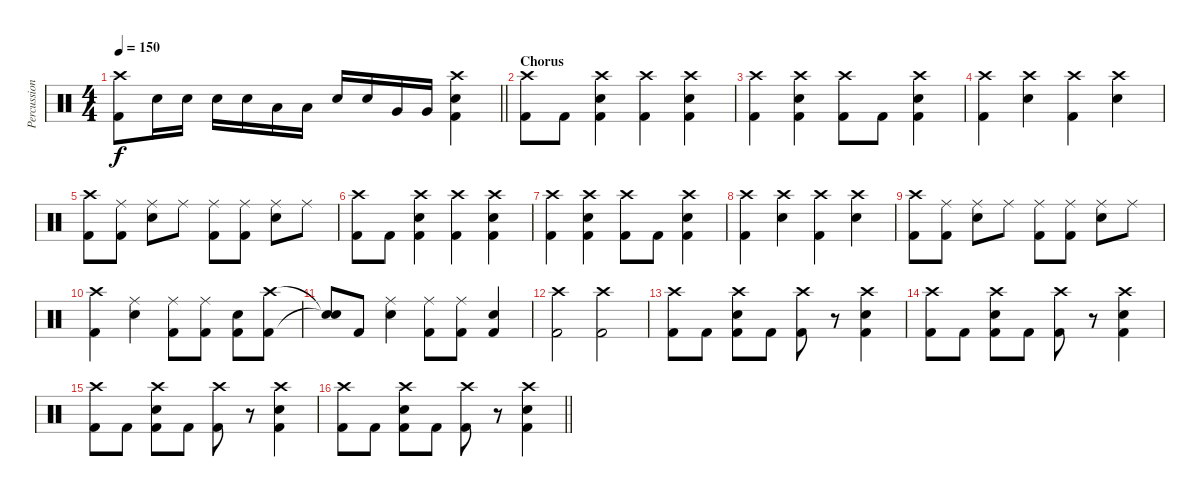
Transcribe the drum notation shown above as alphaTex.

\track ("Percussion" "Percussion") {instrument percussion}
\staff {score}
\articulation defaults
\ts (4 4)
\tempo 150
\clef neutral
\barLineRight lightlight
\ks c
("Crash high (hit)" "Kick (hit) 2").8{dy f} "Electric Snare (hit)".16 "Electric Snare (hit)".16 "Electric Snare (hit)".16 "Electric Snare (hit)".16 "Low Tom (hit)".16 "Low Tom (hit)".16 "Electric Snare (hit)".16 "Electric Snare (hit)".16 "Very Low Tom (hit)".16 "Very Low Tom (hit)".16 ("Crash high (hit)" "Electric Snare (hit)" "Kick (hit) 2").4 |
\section ("" "Chorus")
("Crash high (hit)" "Kick (hit) 2").8 "Kick (hit) 2".8 ("Crash high (hit)" "Electric Snare (hit)" "Kick (hit) 2").4 ("Crash high (hit)" "Kick (hit) 2").4 ("Crash high (hit)" "Electric Snare (hit)" "Kick (hit) 2").4 |
("Crash high (hit)" "Kick (hit) 2").4 ("Crash high (hit)" "Electric Snare (hit)" "Kick (hit) 2").4 ("Crash high (hit)" "Kick (hit) 2").8 "Kick (hit) 2".8 ("Crash high (hit)" "Electric Snare (hit)" "Kick (hit) 2").4 |
("Crash high (hit)" "Kick (hit) 2").4 ("Crash high (hit)" "Electric Snare (hit)").4 ("Crash high (hit)" "Kick (hit) 2").4 ("Crash high (hit)" "Electric Snare (hit)").4 |
("Crash high (hit)" "Kick (hit) 2").8 ("Ride (middle)" "Kick (hit) 2").8 ("Ride (middle)" "Electric Snare (hit)").8 "Ride (middle)".8 ("Ride (middle)" "Kick (hit) 2").8 ("Ride (middle)" "Kick (hit) 2").8 ("Ride (middle)" "Electric Snare (hit)").8 "Ride (middle)".8 |
("Crash high (hit)" "Kick (hit) 2").8 "Kick (hit) 2".8 ("Crash high (hit)" "Electric Snare (hit)" "Kick (hit) 2").4 ("Crash high (hit)" "Kick (hit) 2").4 ("Crash high (hit)" "Electric Snare (hit)" "Kick (hit) 2").4 |
("Crash high (hit)" "Kick (hit) 2").4 ("Crash high (hit)" "Electric Snare (hit)" "Kick (hit) 2").4 ("Crash high (hit)" "Kick (hit) 2").8 "Kick (hit) 2".8 ("Crash high (hit)" "Electric Snare (hit)" "Kick (hit) 2").4 |
("Crash high (hit)" "Kick (hit) 2").4 ("Crash high (hit)" "Electric Snare (hit)").4 ("Crash high (hit)" "Kick (hit) 2").4 ("Crash high (hit)" "Electric Snare (hit)").4 |
("Crash high (hit)" "Kick (hit) 2").8 ("Ride (middle)" "Kick (hit) 2").8 ("Ride (middle)" "Electric Snare (hit)").8 "Ride (middle)".8 ("Ride (middle)" "Kick (hit) 2").8 ("Ride (middle)" "Kick (hit) 2").8 ("Ride (middle)" "Electric Snare (hit)").8 "Ride (middle)".8 |
("Crash high (hit)" "Kick (hit) 2").4 ("Ride (middle)" "Electric Snare (hit)").4 ("Ride (middle)" "Kick (hit) 2").8 ("Ride (middle)" "Kick (hit) 2").8 ("Electric Snare (hit)" "Kick (hit) 2").8 ("Crash high (hit)" "Kick (hit) 2").8 |
("Snare (hit)"{t} "Snare (hit)"{t}).8 "Kick (hit) 2".8 ("Ride (middle)" "Electric Snare (hit)").4 ("Ride (middle)" "Kick (hit) 2").8 ("Ride (middle)" "Kick (hit) 2").8 ("Electric Snare (hit)" "Kick (hit) 2").4 |
("Crash high (hit)" "Kick (hit) 2").2 ("Crash high (hit)" "Kick (hit) 2").2 |
("Crash high (hit)" "Kick (hit) 2").8 "Kick (hit) 2".8 ("Crash high (hit)" "Electric Snare (hit)" "Kick (hit) 2").8 "Kick (hit) 2".8 ("Crash high (hit)" "Kick (hit) 2").8 r.8 ("Crash high (hit)" "Electric Snare (hit)" "Kick (hit) 2").4 |
("Crash high (hit)" "Kick (hit) 2").8 "Kick (hit) 2".8 ("Crash high (hit)" "Electric Snare (hit)" "Kick (hit) 2").8 "Kick (hit) 2".8 ("Crash high (hit)" "Kick (hit) 2").8 r.8 ("Crash high (hit)" "Electric Snare (hit)" "Kick (hit) 2").4 |
("Crash high (hit)" "Kick (hit) 2").8 "Kick (hit) 2".8 ("Crash high (hit)" "Electric Snare (hit)" "Kick (hit) 2").8 "Kick (hit) 2".8 ("Crash high (hit)" "Kick (hit) 2").8 r.8 ("Crash high (hit)" "Electric Snare (hit)" "Kick (hit) 2").4 |
\barLineRight lightlight
("Crash high (hit)" "Kick (hit) 2").8 "Kick (hit) 2".8 ("Crash high (hit)" "Electric Snare (hit)" "Kick (hit) 2").8 "Kick (hit) 2".8 ("Crash high (hit)" "Kick (hit) 2").8 r.8 ("Crash high (hit)" "Electric Snare (hit)" "Kick (hit) 2").4
